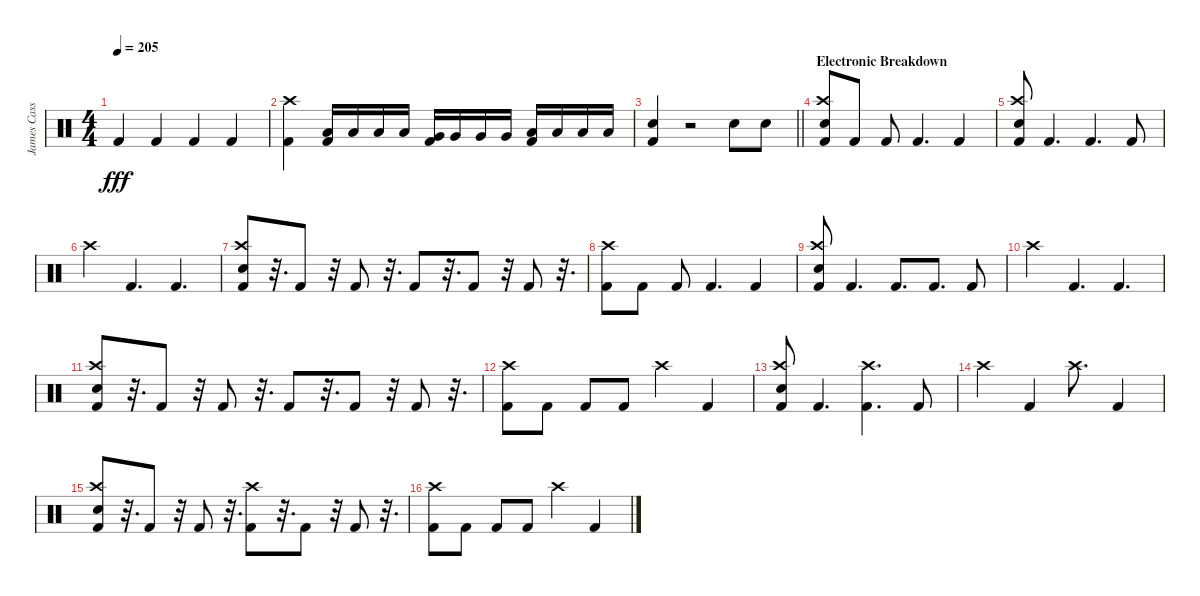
\track ("James Cassels" "James Cass") {instrument percussion}
\staff {score}
\articulation defaults
\ts (4 4)
\tempo 205
\clef neutral
\ks c "Kick (hit) 2".4{dy fff} "Kick (hit) 2".4 "Kick (hit) 2".4 "Kick (hit) 2".4
|
("Crash high (hit)" "Kick (hit) 2").4 ("Low Tom (hit)" "Kick (hit) 2").16 "Low Tom (hit)".16 "Low Tom (hit)".16 "Low Tom (hit)".16 ("Very Low Tom (hit)" "Kick (hit) 2").16 "Very Low Tom (hit)".16 "Very Low Tom (hit)".16 "Very Low Tom (hit)".16 ("Low Floor Tom (hit)" "Kick (hit) 2").16 "Low Floor Tom (hit)".16 "Low Floor Tom (hit)".16 "Low Floor Tom (hit)".16 |
\barLineRight lightlight
("Electric Snare (hit)" "Kick (hit) 2").4 r.2 "Electric Snare (hit)".8 "Electric Snare (hit)".8 |
\section ("" "Electronic Breakdown")
("Crash high (hit)" "Electric Snare (hit)" "Kick (hit) 2").8 "Kick (hit) 2".8 "Kick (hit) 2".8 "Kick (hit) 2".4{d} "Kick (hit) 2".4 |
("Crash high (hit)" "Electric Snare (hit)" "Kick (hit) 2").8 "Kick (hit) 2".4{d} "Kick (hit) 2".4{d} "Kick (hit) 2".8 |
"Crash high (hit)".4 "Kick (hit) 2".4{d} "Kick (hit) 2".4{d} |
("Crash high (hit)" "Electric Snare (hit)" "Kick (hit) 2").8 r.32{d} "Kick (hit) 2".8 r.32 "Kick (hit) 2".8 r.32{d} "Kick (hit) 2".8 r.32{d} "Kick (hit) 2".8 r.32 "Kick (hit) 2".8 r.32{d} |
("Crash high (hit)" "Kick (hit) 2").8 "Kick (hit) 2".8 "Kick (hit) 2".8 "Kick (hit) 2".4{d} "Kick (hit) 2".4 |
("Crash high (hit)" "Electric Snare (hit)" "Kick (hit) 2").8 "Kick (hit) 2".4{d} "Kick (hit) 2".8{d} "Kick (hit) 2".8{d} "Kick (hit) 2".8 |
"Crash high (hit)".4 "Kick (hit) 2".4{d} "Kick (hit) 2".4{d} |
("Crash high (hit)" "Electric Snare (hit)" "Kick (hit) 2").8 r.32{d} "Kick (hit) 2".8 r.32 "Kick (hit) 2".8 r.32{d} "Kick (hit) 2".8 r.32{d} "Kick (hit) 2".8 r.32 "Kick (hit) 2".8 r.32{d} |
("Crash high (hit)" "Kick (hit) 2").8 "Kick (hit) 2".8 "Kick (hit) 2".8 "Kick (hit) 2".8 "Crash high (hit)".4 "Kick (hit) 2".4 |
("Crash high (hit)" "Electric Snare (hit)" "Kick (hit) 2").8 "Kick (hit) 2".4{d} ("Crash high (hit)" "Kick (hit) 2").4{d} "Kick (hit) 2".8 |
"Crash high (hit)".4 "Kick (hit) 2".4 "Crash high (hit)".8{d} "Kick (hit) 2".4 |
("Crash high (hit)" "Electric Snare (hit)" "Kick (hit) 2").8 r.32{d} "Kick (hit) 2".8 r.32 "Kick (hit) 2".8 r.32{d} ("Crash high (hit)" "Kick (hit) 2").8 r.32{d} "Kick (hit) 2".8 r.32 "Kick (hit) 2".8 r.32{d} |
("Crash high (hit)" "Kick (hit) 2").8 "Kick (hit) 2".8 "Kick (hit) 2".8 "Kick (hit) 2".8 "Crash high (hit)".4 "Kick (hit) 2".4
